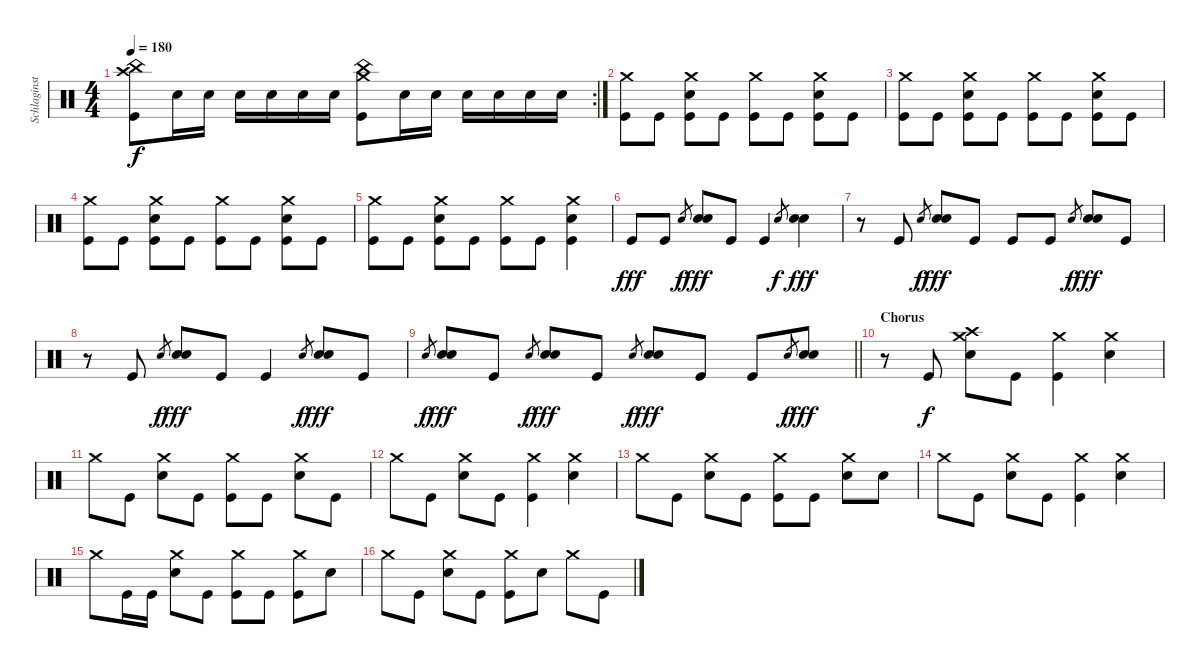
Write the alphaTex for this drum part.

\track ("Schlaginstrumente - Auswahl" "Schlaginst") {instrument percussion}
\staff {score}
\articulation defaults
\rc 2
\ts (4 4)
\tempo 180
\clef neutral
\ks c
("Crash high (hit)" "Kick (hit)" "China (hit)").8{dy f} "Snare (hit) 2".16 "Snare (hit) 2".16 "Snare (hit) 2".16 "Snare (hit) 2".16 "Snare (hit) 2".16 "Snare (hit) 2".16 ("Kick (hit)" "Crash medium (hit)" "China (hit)").8 "Snare (hit) 2".16 "Snare (hit) 2".16 "Snare (hit) 2".16 "Snare (hit) 2".16 "Snare (hit) 2".16 "Snare (hit) 2".16 |
("Crash medium (hit)" "Kick (hit)").8 "Kick (hit)".8 ("Kick (hit)" "Crash medium (hit)" "Snare (hit) 2").8 "Kick (hit)".8 ("Kick (hit)" "Crash medium (hit)").8 "Kick (hit)".8 ("Kick (hit)" "Crash medium (hit)" "Snare (hit) 2").8 "Kick (hit)".8 |
("Crash medium (hit)" "Kick (hit)").8 "Kick (hit)".8 ("Kick (hit)" "Crash medium (hit)" "Snare (hit) 2").8 "Kick (hit)".8 ("Kick (hit)" "Crash medium (hit)").8 "Kick (hit)".8 ("Kick (hit)" "Crash medium (hit)" "Snare (hit) 2").8 "Kick (hit)".8 |
("Crash medium (hit)" "Kick (hit)").8 "Kick (hit)".8 ("Kick (hit)" "Crash medium (hit)" "Snare (hit) 2").8 "Kick (hit)".8 ("Kick (hit)" "Crash medium (hit)").8 "Kick (hit)".8 ("Kick (hit)" "Crash medium (hit)" "Snare (hit) 2").8 "Kick (hit)".8 |
("Crash medium (hit)" "Kick (hit)").8 "Kick (hit)".8 ("Kick (hit)" "Crash medium (hit)" "Snare (hit) 2").8 "Kick (hit)".8 ("Kick (hit)" "Crash medium (hit)").8 "Kick (hit)".8 ("Kick (hit)" "Crash medium (hit)" "Snare (hit) 2").4 |
"Kick (hit)".8{dy fff} "Kick (hit)".8 "Electric Snare (hit)".8{gr dy f} ("Snare (hit) 2" "Electric Snare (hit)").8{dy fff} "Kick (hit)".8 "Kick (hit)".4 "Electric Snare (hit)".8{gr dy f} ("Snare (hit) 2" "Electric Snare (hit)").4{dy fff} |
r.8 "Kick (hit)".8 "Electric Snare (hit)".8{gr dy f} ("Snare (hit) 2" "Electric Snare (hit)").8{dy fff} "Kick (hit)".8 "Kick (hit)".8 "Kick (hit)".8 "Electric Snare (hit)".8{gr dy f} ("Snare (hit) 2" "Electric Snare (hit)").8{dy fff} "Kick (hit)".8 |
r.8 "Kick (hit)".8 "Electric Snare (hit)".8{gr dy f} ("Snare (hit) 2" "Electric Snare (hit)").8{dy fff} "Kick (hit)".8 "Kick (hit)".4 "Electric Snare (hit)".8{gr dy f} ("Snare (hit) 2" "Electric Snare (hit)").8{dy fff} "Kick (hit)".8 |
\barLineRight lightlight "Electric Snare (hit)".8{gr dy f}
("Snare (hit) 2" "Electric Snare (hit)").8{dy fff} "Kick (hit)".8 "Electric Snare (hit)".8{gr dy f} ("Snare (hit) 2" "Electric Snare (hit)").8{dy fff} "Kick (hit)".8 "Electric Snare (hit)".8{gr dy f} ("Snare (hit) 2" "Electric Snare (hit)").8{dy fff} "Kick (hit)".8 "Kick (hit)".8 "Electric Snare (hit)".8{gr dy f} ("Snare (hit) 2" "Electric Snare (hit)").8{dy fff} |
\section ("" "Chorus")
r.8 "Kick (hit)".8{dy f} ("Crash medium (hit)" "Crash high (hit)" "Snare (hit) 2").8 "Kick (hit)".8 ("Crash medium (hit)" "Kick (hit)").4 ("Crash medium (hit)" "Snare (hit) 2").4 |
"Crash medium (hit)".8 "Kick (hit)".8 ("Crash medium (hit)" "Snare (hit) 2").8 "Kick (hit)".8 ("Crash medium (hit)" "Kick (hit)").8 "Kick (hit)".8 ("Snare (hit) 2" "Crash medium (hit)").8 "Kick (hit)".8 |
"Crash medium (hit)".8 "Kick (hit)".8 ("Crash medium (hit)" "Snare (hit) 2").8 "Kick (hit)".8 ("Crash medium (hit)" "Kick (hit)").4 ("Crash medium (hit)" "Snare (hit) 2").4 |
"Crash medium (hit)".8 "Kick (hit)".8 ("Crash medium (hit)" "Snare (hit) 2").8 "Kick (hit)".8 ("Crash medium (hit)" "Kick (hit)").8 "Kick (hit)".8 ("Snare (hit) 2" "Crash medium (hit)").8 "Snare (hit) 2".8 |
"Crash medium (hit)".8 "Kick (hit)".8 ("Crash medium (hit)" "Snare (hit) 2").8 "Kick (hit)".8 ("Crash medium (hit)" "Kick (hit)").4 ("Crash medium (hit)" "Snare (hit) 2").4 |
"Crash medium (hit)".8 "Kick (hit)".16 "Kick (hit)".16 ("Crash medium (hit)" "Snare (hit) 2").8 "Kick (hit)".8 ("Crash medium (hit)" "Kick (hit)").8 "Kick (hit)".8 ("Kick (hit)" "Crash medium (hit)").8 "Snare (hit) 2".8 |
"Crash medium (hit)".8 "Kick (hit)".8 ("Crash medium (hit)" "Snare (hit) 2").8 "Kick (hit)".8 ("Crash medium (hit)" "Kick (hit)").8 "Snare (hit) 2".8 "Crash medium (hit)".8 "Kick (hit)".8
